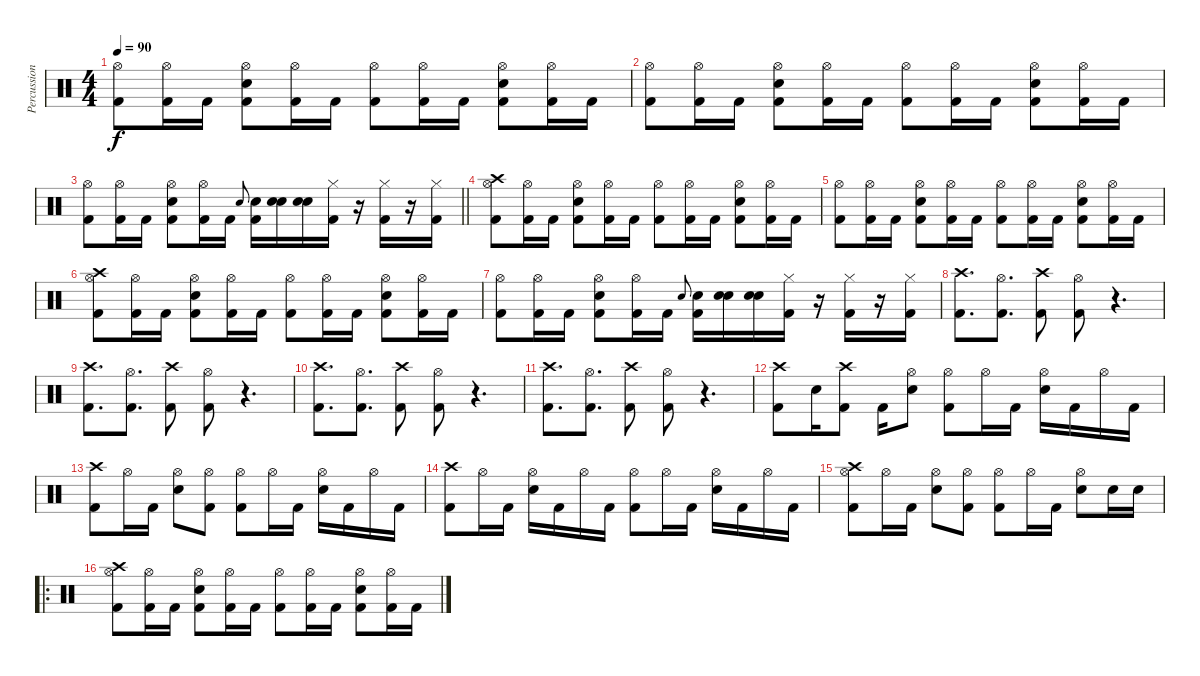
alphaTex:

\track ("Percussion " "Percussion") {instrument percussion}
\staff {score}
\articulation defaults
\ts (4 4)
\tempo 90
\clef neutral
\ks c
("Hi-Hat (open)" "Kick (hit) 2").8{dy f} ("Hi-Hat (open)" "Kick (hit) 2").16 "Kick (hit) 2".16 ("Hi-Hat (open)" "Snare (hit) 2" "Kick (hit) 2").8 ("Hi-Hat (open)" "Kick (hit) 2").16 "Kick (hit) 2".16 ("Hi-Hat (open)" "Kick (hit) 2").8 ("Hi-Hat (open)" "Kick (hit) 2").16 "Kick (hit) 2".16 ("Hi-Hat (open)" "Snare (hit) 2" "Kick (hit) 2").8 ("Hi-Hat (open)" "Kick (hit) 2").16 "Kick (hit) 2".16 |
("Hi-Hat (open)" "Kick (hit) 2").8 ("Hi-Hat (open)" "Kick (hit) 2").16 "Kick (hit) 2".16 ("Hi-Hat (open)" "Snare (hit) 2" "Kick (hit) 2").8 ("Hi-Hat (open)" "Kick (hit) 2").16 "Kick (hit) 2".16 ("Hi-Hat (open)" "Kick (hit) 2").8 ("Hi-Hat (open)" "Kick (hit) 2").16 "Kick (hit) 2".16 ("Hi-Hat (open)" "Snare (hit) 2" "Kick (hit) 2").8 ("Hi-Hat (open)" "Kick (hit) 2").16 "Kick (hit) 2".16 |
\barLineRight lightlight
("Hi-Hat (open)" "Kick (hit) 2").8 ("Hi-Hat (open)" "Kick (hit) 2").16 "Kick (hit) 2".16 ("Hi-Hat (open)" "Snare (hit) 2" "Kick (hit) 2").8 ("Hi-Hat (open)" "Kick (hit) 2").16 "Kick (hit) 2".16 "Snare (hit) 2".8{gr onbeat} ("Snare (hit) 2" "Kick (hit) 2").16 ("Snare (hit) 2" "Snare (hit) 2").16 ("Snare (hit) 2" "Snare (hit) 2").16 ("Hi-Hat (closed)" "Kick (hit) 2").16 r.16 ("Hi-Hat (closed)" "Kick (hit) 2").16 r.16 ("Hi-Hat (closed)" "Kick (hit) 2").16 |
("Crash high (hit)" "Hi-Hat (open)" "Kick (hit) 2").8 ("Hi-Hat (open)" "Kick (hit) 2").16 "Kick (hit) 2".16 ("Hi-Hat (open)" "Snare (hit) 2" "Kick (hit) 2").8 ("Hi-Hat (open)" "Kick (hit) 2").16 "Kick (hit) 2".16 ("Hi-Hat (open)" "Kick (hit) 2").8 ("Hi-Hat (open)" "Kick (hit) 2").16 "Kick (hit) 2".16 ("Hi-Hat (open)" "Snare (hit) 2" "Kick (hit) 2").8 ("Hi-Hat (open)" "Kick (hit) 2").16 "Kick (hit) 2".16 |
("Hi-Hat (open)" "Kick (hit) 2").8 ("Hi-Hat (open)" "Kick (hit) 2").16 "Kick (hit) 2".16 ("Hi-Hat (open)" "Snare (hit) 2" "Kick (hit) 2").8 ("Hi-Hat (open)" "Kick (hit) 2").16 "Kick (hit) 2".16 ("Hi-Hat (open)" "Kick (hit) 2").8 ("Hi-Hat (open)" "Kick (hit) 2").16 "Kick (hit) 2".16 ("Hi-Hat (open)" "Snare (hit) 2" "Kick (hit) 2").8 ("Hi-Hat (open)" "Kick (hit) 2").16 "Kick (hit) 2".16 |
("Crash high (hit)" "Hi-Hat (open)" "Kick (hit) 2").8 ("Hi-Hat (open)" "Kick (hit) 2").16 "Kick (hit) 2".16 ("Hi-Hat (open)" "Snare (hit) 2" "Kick (hit) 2").8 ("Hi-Hat (open)" "Kick (hit) 2").16 "Kick (hit) 2".16 ("Hi-Hat (open)" "Kick (hit) 2").8 ("Hi-Hat (open)" "Kick (hit) 2").16 "Kick (hit) 2".16 ("Hi-Hat (open)" "Snare (hit) 2" "Kick (hit) 2").8 ("Hi-Hat (open)" "Kick (hit) 2").16 "Kick (hit) 2".16 |
("Hi-Hat (open)" "Kick (hit) 2").8 ("Hi-Hat (open)" "Kick (hit) 2").16 "Kick (hit) 2".16 ("Hi-Hat (open)" "Snare (hit) 2" "Kick (hit) 2").8 ("Hi-Hat (open)" "Kick (hit) 2").16 "Kick (hit) 2".16 "Snare (hit) 2".8{gr onbeat} ("Snare (hit) 2" "Kick (hit) 2").16 ("Snare (hit) 2" "Snare (hit) 2").16 ("Snare (hit) 2" "Snare (hit) 2").16 ("Hi-Hat (closed)" "Kick (hit) 2").16 r.16 ("Hi-Hat (closed)" "Kick (hit) 2").16 r.16 ("Hi-Hat (closed)" "Kick (hit) 2").16 |
("Crash high (hit)" "Kick (hit) 2").8{d} ("Hi-Hat (open)" "Kick (hit) 2").8{d} ("Crash high (hit)" "Kick (hit) 2").8 ("Hi-Hat (open)" "Kick (hit) 2").8 r.4{d} |
("Crash high (hit)" "Kick (hit) 2").8{d} ("Hi-Hat (open)" "Kick (hit) 2").8{d} ("Crash high (hit)" "Kick (hit) 2").8 ("Hi-Hat (open)" "Kick (hit) 2").8 r.4{d} |
("Crash high (hit)" "Kick (hit) 2").8{d} ("Hi-Hat (open)" "Kick (hit) 2").8{d} ("Crash high (hit)" "Kick (hit) 2").8 ("Hi-Hat (open)" "Kick (hit) 2").8 r.4{d} |
("Crash high (hit)" "Kick (hit) 2").8{d} ("Hi-Hat (open)" "Kick (hit) 2").8{d} ("Crash high (hit)" "Kick (hit) 2").8 ("Hi-Hat (open)" "Kick (hit) 2").8 r.4{d} |
("Crash high (hit)" "Kick (hit) 2").8 "Snare (hit) 2".16 ("Crash high (hit)" "Kick (hit) 2").8 "Kick (hit) 2".16 ("Hi-Hat (open)" "Snare (hit) 2").8 ("Hi-Hat (open)" "Kick (hit) 2").8 "Hi-Hat (open)".16 "Kick (hit) 2".16 ("Hi-Hat (open)" "Snare (hit) 2").16 "Kick (hit) 2".16 "Hi-Hat (open)".16 "Kick (hit) 2".16 |
("Crash high (hit)" "Kick (hit) 2").8 "Hi-Hat (open)".16 "Kick (hit) 2".16 ("Hi-Hat (open)" "Snare (hit) 2").8 ("Hi-Hat (open)" "Kick (hit) 2").8 ("Hi-Hat (open)" "Kick (hit) 2").8 "Hi-Hat (open)".16 "Kick (hit) 2".16 ("Hi-Hat (open)" "Snare (hit) 2").16 "Kick (hit) 2".16 "Hi-Hat (open)".16 "Kick (hit) 2".16 |
("Crash high (hit)" "Kick (hit) 2").8 "Hi-Hat (open)".16 "Kick (hit) 2".16 ("Hi-Hat (open)" "Snare (hit) 2").16 "Kick (hit) 2".16 "Hi-Hat (open)".16 "Kick (hit) 2".16 ("Hi-Hat (open)" "Kick (hit) 2").8 "Hi-Hat (open)".16 "Kick (hit) 2".16 ("Hi-Hat (open)" "Snare (hit) 2").16 "Kick (hit) 2".16 "Hi-Hat (open)".16 "Kick (hit) 2".16 |
("Crash high (hit)" "Hi-Hat (open)" "Kick (hit) 2").8 "Hi-Hat (open)".16 "Kick (hit) 2".16 ("Hi-Hat (open)" "Snare (hit) 2").8 ("Hi-Hat (open)" "Kick (hit) 2").8 ("Hi-Hat (open)" "Kick (hit) 2").8 "Hi-Hat (open)".16 "Kick (hit) 2".16 ("Hi-Hat (open)" "Snare (hit) 2").8 "Snare (hit) 2".16 "Snare (hit) 2".16 |
\ro
("Crash high (hit)" "Hi-Hat (open)" "Kick (hit) 2").8 ("Hi-Hat (open)" "Kick (hit) 2").16 "Kick (hit) 2".16 ("Hi-Hat (open)" "Snare (hit) 2" "Kick (hit) 2").8 ("Hi-Hat (open)" "Kick (hit) 2").16 "Kick (hit) 2".16 ("Hi-Hat (open)" "Kick (hit) 2").8 ("Hi-Hat (open)" "Kick (hit) 2").16 "Kick (hit) 2".16 ("Hi-Hat (open)" "Snare (hit) 2" "Kick (hit) 2").8 ("Hi-Hat (open)" "Kick (hit) 2").16 "Kick (hit) 2".16
